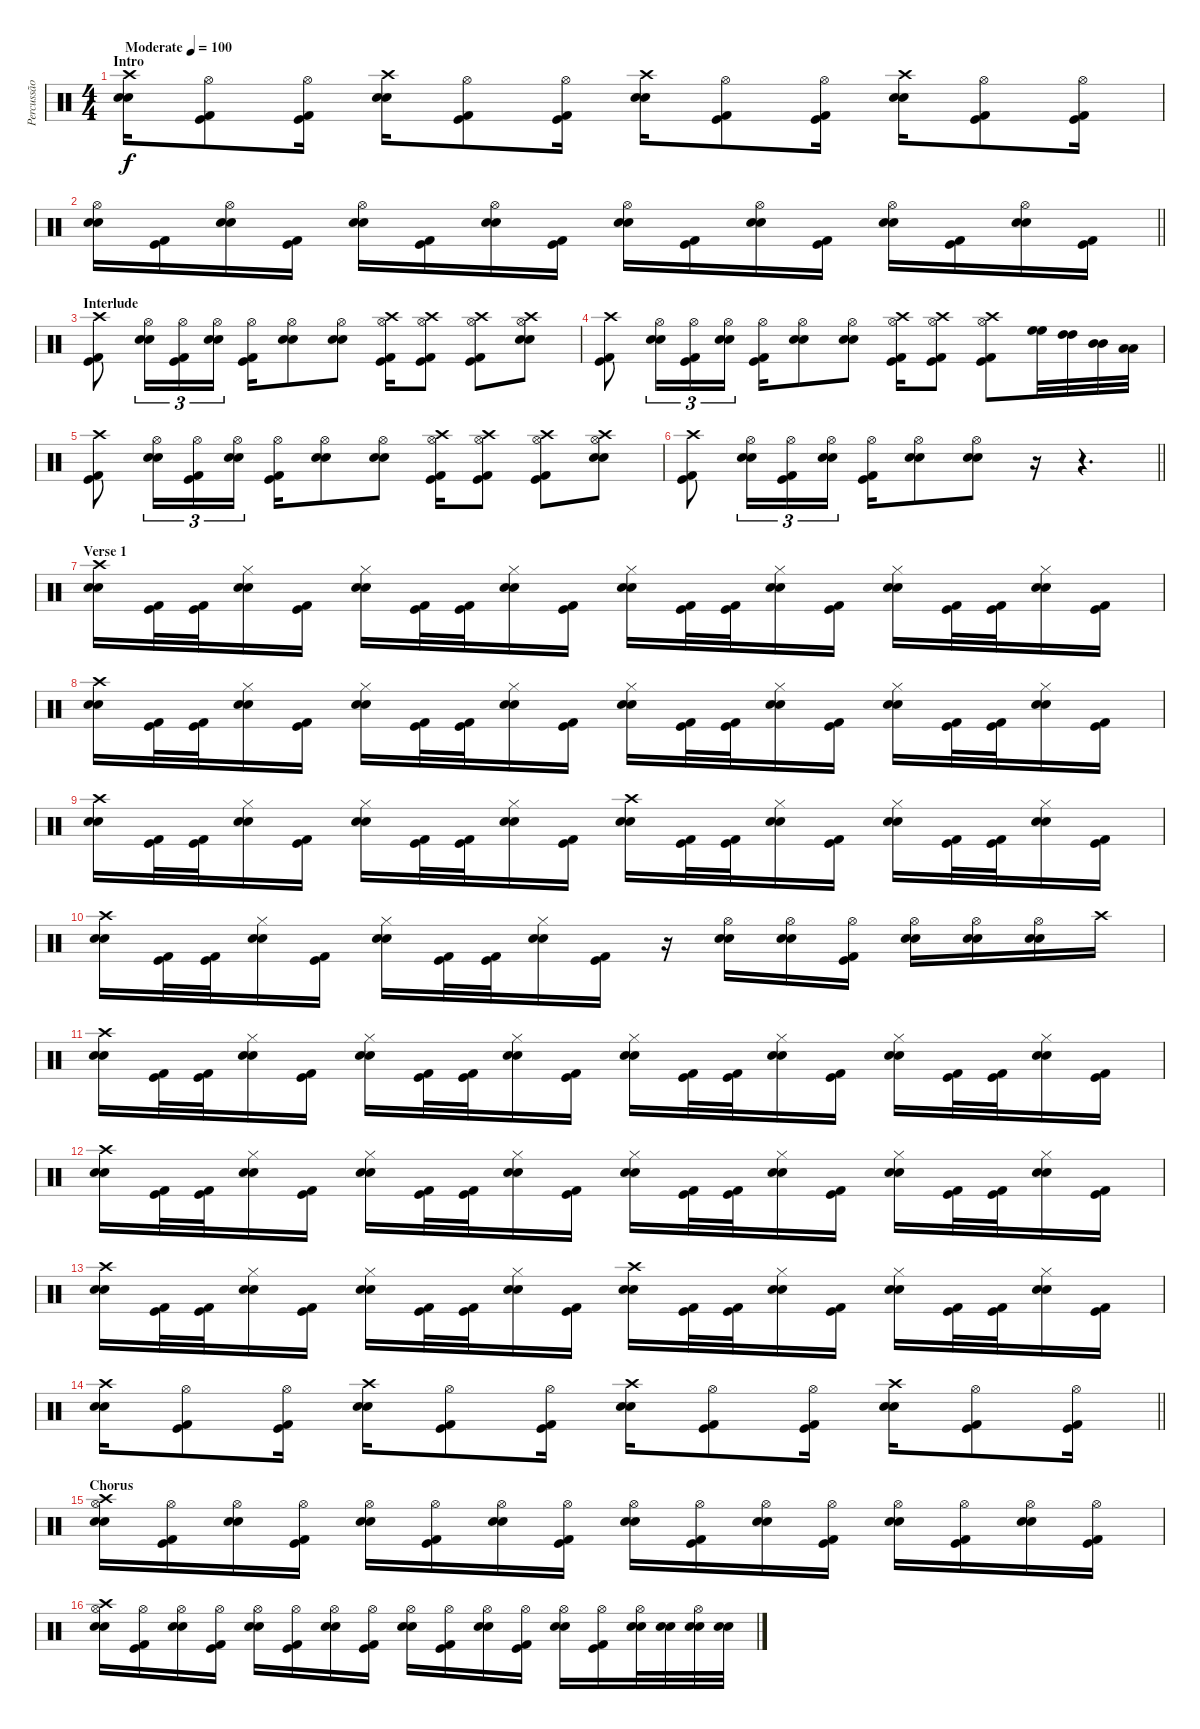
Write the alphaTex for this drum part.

\track ("Percussão" "Percussão") {instrument percussion}
\staff {score}
\articulation defaults
\ts (4 4)
\section ("" "Intro")
\tempo (100 "Moderate")
\clef neutral
\ks c
("Crash high (hit)" "Electric Snare (hit)" "Snare (hit) 2").16{dy f} ("Hi-Hat (open)" "Kick (hit) 2" "Kick (hit)").8 ("Hi-Hat (open)" "Kick (hit) 2" "Kick (hit)").16 ("Crash high (hit)" "Electric Snare (hit)" "Snare (hit) 2").16 ("Hi-Hat (open)" "Kick (hit) 2" "Kick (hit)").8 ("Hi-Hat (open)" "Kick (hit) 2" "Kick (hit)").16 ("Crash high (hit)" "Electric Snare (hit)" "Snare (hit) 2").16 ("Hi-Hat (open)" "Kick (hit) 2" "Kick (hit)").8 ("Hi-Hat (open)" "Kick (hit) 2" "Kick (hit)").16 ("Crash high (hit)" "Electric Snare (hit)" "Snare (hit) 2").16 ("Hi-Hat (open)" "Kick (hit) 2" "Kick (hit)").8 ("Hi-Hat (open)" "Kick (hit) 2" "Kick (hit)").16 |
\barLineRight lightlight
("Hi-Hat (open)" "Electric Snare (hit)" "Snare (hit) 2").16 ("Kick (hit) 2" "Kick (hit)").16 ("Hi-Hat (open)" "Electric Snare (hit)" "Snare (hit) 2").16 ("Kick (hit) 2" "Kick (hit)").16 ("Hi-Hat (open)" "Electric Snare (hit)" "Snare (hit) 2").16 ("Kick (hit) 2" "Kick (hit)").16 ("Hi-Hat (open)" "Electric Snare (hit)" "Snare (hit) 2").16 ("Kick (hit) 2" "Kick (hit)").16 ("Hi-Hat (open)" "Electric Snare (hit)" "Snare (hit) 2").16 ("Kick (hit) 2" "Kick (hit)").16 ("Hi-Hat (open)" "Electric Snare (hit)" "Snare (hit) 2").16 ("Kick (hit) 2" "Kick (hit)").16 ("Hi-Hat (open)" "Electric Snare (hit)" "Snare (hit) 2").16 ("Kick (hit) 2" "Kick (hit)").16 ("Hi-Hat (open)" "Electric Snare (hit)" "Snare (hit) 2").16 ("Kick (hit) 2" "Kick (hit)").16 |
\section ("" "Interlude")
("Crash high (hit)" "Kick (hit) 2" "Kick (hit)").8 ("Hi-Hat (open)" "Electric Snare (hit)" "Snare (hit) 2").16{tu (3 2)} ("Hi-Hat (open)" "Kick (hit) 2" "Kick (hit)").16{tu (3 2)} ("Hi-Hat (open)" "Electric Snare (hit)" "Snare (hit) 2").16{tu (3 2)} ("Hi-Hat (open)" "Kick (hit) 2" "Kick (hit)").16 ("Hi-Hat (open)" "Electric Snare (hit)" "Snare (hit) 2").8 ("Hi-Hat (open)" "Electric Snare (hit)" "Snare (hit) 2").8 ("Crash high (hit)" "Hi-Hat (open)" "Kick (hit) 2" "Kick (hit)").16 ("Crash high (hit)" "Hi-Hat (open)" "Kick (hit) 2" "Kick (hit)").8 ("Crash high (hit)" "Hi-Hat (open)" "Kick (hit) 2" "Kick (hit)").8 ("Crash high (hit)" "Hi-Hat (open)" "Electric Snare (hit)" "Snare (hit) 2").8 |
("Crash high (hit)" "Kick (hit) 2" "Kick (hit)").8 ("Hi-Hat (open)" "Electric Snare (hit)" "Snare (hit) 2").16{tu (3 2)} ("Hi-Hat (open)" "Kick (hit) 2" "Kick (hit)").16{tu (3 2)} ("Hi-Hat (open)" "Electric Snare (hit)" "Snare (hit) 2").16{tu (3 2)} ("Hi-Hat (open)" "Kick (hit) 2" "Kick (hit)").16 ("Hi-Hat (open)" "Electric Snare (hit)" "Snare (hit) 2").8 ("Hi-Hat (open)" "Electric Snare (hit)" "Snare (hit) 2").8 ("Crash high (hit)" "Hi-Hat (open)" "Kick (hit) 2" "Kick (hit)").16 ("Crash high (hit)" "Hi-Hat (open)" "Kick (hit) 2" "Kick (hit)").8 ("Crash high (hit)" "Hi-Hat (open)" "Kick (hit) 2" "Kick (hit)").8 ("High Floor Tom (hit)" "High Floor Tom (hit)").32 ("High Tom (hit)" "High Tom (hit)").32 ("Mid Tom (hit)" "Mid Tom (hit)").32 ("Low Tom (hit)" "Low Tom (hit)").32 |
("Crash high (hit)" "Kick (hit) 2" "Kick (hit)").8 ("Hi-Hat (open)" "Electric Snare (hit)" "Snare (hit) 2").16{tu (3 2)} ("Hi-Hat (open)" "Kick (hit) 2" "Kick (hit)").16{tu (3 2)} ("Hi-Hat (open)" "Electric Snare (hit)" "Snare (hit) 2").16{tu (3 2)} ("Hi-Hat (open)" "Kick (hit) 2" "Kick (hit)").16 ("Hi-Hat (open)" "Electric Snare (hit)" "Snare (hit) 2").8 ("Hi-Hat (open)" "Electric Snare (hit)" "Snare (hit) 2").8 ("Crash high (hit)" "Hi-Hat (open)" "Kick (hit) 2" "Kick (hit)").16 ("Crash high (hit)" "Hi-Hat (open)" "Kick (hit) 2" "Kick (hit)").8 ("Crash high (hit)" "Hi-Hat (open)" "Kick (hit) 2" "Kick (hit)").8 ("Crash high (hit)" "Hi-Hat (open)" "Electric Snare (hit)" "Snare (hit) 2").8 |
\barLineRight lightlight
("Crash high (hit)" "Kick (hit) 2" "Kick (hit)").8 ("Hi-Hat (open)" "Electric Snare (hit)" "Snare (hit) 2").16{tu (3 2)} ("Hi-Hat (open)" "Kick (hit) 2" "Kick (hit)").16{tu (3 2)} ("Hi-Hat (open)" "Electric Snare (hit)" "Snare (hit) 2").16{tu (3 2)} ("Hi-Hat (open)" "Kick (hit) 2" "Kick (hit)").16 ("Hi-Hat (open)" "Electric Snare (hit)" "Snare (hit) 2").8 ("Hi-Hat (open)" "Electric Snare (hit)" "Snare (hit) 2").8 r.16 r.4{d} |
\section ("" "Verse 1")
("Crash high (hit)" "Electric Snare (hit)" "Snare (hit) 2").16 ("Kick (hit) 2" "Kick (hit)").32 ("Kick (hit) 2" "Kick (hit)").32 ("Hi-Hat (closed)" "Electric Snare (hit)" "Snare (hit) 2").16 ("Kick (hit) 2" "Kick (hit)").16 ("Hi-Hat (closed)" "Electric Snare (hit)" "Snare (hit) 2").16 ("Kick (hit) 2" "Kick (hit)").32 ("Kick (hit) 2" "Kick (hit)").32 ("Hi-Hat (closed)" "Electric Snare (hit)" "Snare (hit) 2").16 ("Kick (hit) 2" "Kick (hit)").16 ("Hi-Hat (closed)" "Electric Snare (hit)" "Snare (hit) 2").16 ("Kick (hit) 2" "Kick (hit)").32 ("Kick (hit) 2" "Kick (hit)").32 ("Hi-Hat (closed)" "Electric Snare (hit)" "Snare (hit) 2").16 ("Kick (hit) 2" "Kick (hit)").16 ("Hi-Hat (closed)" "Electric Snare (hit)" "Snare (hit) 2").16 ("Kick (hit) 2" "Kick (hit)").32 ("Kick (hit) 2" "Kick (hit)").32 ("Hi-Hat (closed)" "Electric Snare (hit)" "Snare (hit) 2").16 ("Kick (hit) 2" "Kick (hit)").16 |
("Crash high (hit)" "Electric Snare (hit)" "Snare (hit) 2").16 ("Kick (hit) 2" "Kick (hit)").32 ("Kick (hit) 2" "Kick (hit)").32 ("Hi-Hat (closed)" "Electric Snare (hit)" "Snare (hit) 2").16 ("Kick (hit) 2" "Kick (hit)").16 ("Hi-Hat (closed)" "Electric Snare (hit)" "Snare (hit) 2").16 ("Kick (hit) 2" "Kick (hit)").32 ("Kick (hit) 2" "Kick (hit)").32 ("Hi-Hat (closed)" "Electric Snare (hit)" "Snare (hit) 2").16 ("Kick (hit) 2" "Kick (hit)").16 ("Hi-Hat (closed)" "Electric Snare (hit)" "Snare (hit) 2").16 ("Kick (hit) 2" "Kick (hit)").32 ("Kick (hit) 2" "Kick (hit)").32 ("Hi-Hat (closed)" "Electric Snare (hit)" "Snare (hit) 2").16 ("Kick (hit) 2" "Kick (hit)").16 ("Hi-Hat (closed)" "Electric Snare (hit)" "Snare (hit) 2").16 ("Kick (hit) 2" "Kick (hit)").32 ("Kick (hit) 2" "Kick (hit)").32 ("Hi-Hat (closed)" "Electric Snare (hit)" "Snare (hit) 2").16 ("Kick (hit) 2" "Kick (hit)").16 |
("Crash high (hit)" "Electric Snare (hit)" "Snare (hit) 2").16 ("Kick (hit) 2" "Kick (hit)").32 ("Kick (hit) 2" "Kick (hit)").32 ("Hi-Hat (closed)" "Electric Snare (hit)" "Snare (hit) 2").16 ("Kick (hit) 2" "Kick (hit)").16 ("Hi-Hat (closed)" "Electric Snare (hit)" "Snare (hit) 2").16 ("Kick (hit) 2" "Kick (hit)").32 ("Kick (hit) 2" "Kick (hit)").32 ("Hi-Hat (closed)" "Electric Snare (hit)" "Snare (hit) 2").16 ("Kick (hit) 2" "Kick (hit)").16 ("Crash high (hit)" "Electric Snare (hit)" "Snare (hit) 2").16 ("Kick (hit) 2" "Kick (hit)").32 ("Kick (hit) 2" "Kick (hit)").32 ("Hi-Hat (closed)" "Electric Snare (hit)" "Snare (hit) 2").16 ("Kick (hit) 2" "Kick (hit)").16 ("Hi-Hat (closed)" "Electric Snare (hit)" "Snare (hit) 2").16 ("Kick (hit) 2" "Kick (hit)").32 ("Kick (hit) 2" "Kick (hit)").32 ("Hi-Hat (closed)" "Electric Snare (hit)" "Snare (hit) 2").16 ("Kick (hit) 2" "Kick (hit)").16 |
("Crash high (hit)" "Electric Snare (hit)" "Snare (hit) 2").16 ("Kick (hit) 2" "Kick (hit)").32 ("Kick (hit) 2" "Kick (hit)").32 ("Hi-Hat (closed)" "Electric Snare (hit)" "Snare (hit) 2").16 ("Kick (hit) 2" "Kick (hit)").16 ("Hi-Hat (closed)" "Electric Snare (hit)" "Snare (hit) 2").16 ("Kick (hit) 2" "Kick (hit)").32 ("Kick (hit) 2" "Kick (hit)").32 ("Hi-Hat (closed)" "Electric Snare (hit)" "Snare (hit) 2").16 ("Kick (hit) 2" "Kick (hit)").16 r.16 ("Hi-Hat (open)" "Electric Snare (hit)" "Snare (hit) 2").16 ("Hi-Hat (open)" "Electric Snare (hit)" "Snare (hit) 2").16 ("Hi-Hat (open)" "Kick (hit) 2" "Kick (hit)").16 ("Hi-Hat (open)" "Electric Snare (hit)" "Snare (hit) 2").16 ("Hi-Hat (open)" "Electric Snare (hit)" "Snare (hit) 2").16 ("Hi-Hat (open)" "Electric Snare (hit)" "Snare (hit) 2").16 "Crash high (hit)".16 |
("Crash high (hit)" "Electric Snare (hit)" "Snare (hit) 2").16 ("Kick (hit) 2" "Kick (hit)").32 ("Kick (hit) 2" "Kick (hit)").32 ("Hi-Hat (closed)" "Electric Snare (hit)" "Snare (hit) 2").16 ("Kick (hit) 2" "Kick (hit)").16 ("Hi-Hat (closed)" "Electric Snare (hit)" "Snare (hit) 2").16 ("Kick (hit) 2" "Kick (hit)").32 ("Kick (hit) 2" "Kick (hit)").32 ("Hi-Hat (closed)" "Electric Snare (hit)" "Snare (hit) 2").16 ("Kick (hit) 2" "Kick (hit)").16 ("Hi-Hat (closed)" "Electric Snare (hit)" "Snare (hit) 2").16 ("Kick (hit) 2" "Kick (hit)").32 ("Kick (hit) 2" "Kick (hit)").32 ("Hi-Hat (closed)" "Electric Snare (hit)" "Snare (hit) 2").16 ("Kick (hit) 2" "Kick (hit)").16 ("Hi-Hat (closed)" "Electric Snare (hit)" "Snare (hit) 2").16 ("Kick (hit) 2" "Kick (hit)").32 ("Kick (hit) 2" "Kick (hit)").32 ("Hi-Hat (closed)" "Electric Snare (hit)" "Snare (hit) 2").16 ("Kick (hit) 2" "Kick (hit)").16 |
("Crash high (hit)" "Electric Snare (hit)" "Snare (hit) 2").16 ("Kick (hit) 2" "Kick (hit)").32 ("Kick (hit) 2" "Kick (hit)").32 ("Hi-Hat (closed)" "Electric Snare (hit)" "Snare (hit) 2").16 ("Kick (hit) 2" "Kick (hit)").16 ("Hi-Hat (closed)" "Electric Snare (hit)" "Snare (hit) 2").16 ("Kick (hit) 2" "Kick (hit)").32 ("Kick (hit) 2" "Kick (hit)").32 ("Hi-Hat (closed)" "Electric Snare (hit)" "Snare (hit) 2").16 ("Kick (hit) 2" "Kick (hit)").16 ("Hi-Hat (closed)" "Electric Snare (hit)" "Snare (hit) 2").16 ("Kick (hit) 2" "Kick (hit)").32 ("Kick (hit) 2" "Kick (hit)").32 ("Hi-Hat (closed)" "Electric Snare (hit)" "Snare (hit) 2").16 ("Kick (hit) 2" "Kick (hit)").16 ("Hi-Hat (closed)" "Electric Snare (hit)" "Snare (hit) 2").16 ("Kick (hit) 2" "Kick (hit)").32 ("Kick (hit) 2" "Kick (hit)").32 ("Hi-Hat (closed)" "Electric Snare (hit)" "Snare (hit) 2").16 ("Kick (hit) 2" "Kick (hit)").16 |
("Crash high (hit)" "Electric Snare (hit)" "Snare (hit) 2").16 ("Kick (hit) 2" "Kick (hit)").32 ("Kick (hit) 2" "Kick (hit)").32 ("Hi-Hat (closed)" "Electric Snare (hit)" "Snare (hit) 2").16 ("Kick (hit) 2" "Kick (hit)").16 ("Hi-Hat (closed)" "Electric Snare (hit)" "Snare (hit) 2").16 ("Kick (hit) 2" "Kick (hit)").32 ("Kick (hit) 2" "Kick (hit)").32 ("Hi-Hat (closed)" "Electric Snare (hit)" "Snare (hit) 2").16 ("Kick (hit) 2" "Kick (hit)").16 ("Crash high (hit)" "Electric Snare (hit)" "Snare (hit) 2").16 ("Kick (hit) 2" "Kick (hit)").32 ("Kick (hit) 2" "Kick (hit)").32 ("Hi-Hat (closed)" "Electric Snare (hit)" "Snare (hit) 2").16 ("Kick (hit) 2" "Kick (hit)").16 ("Hi-Hat (closed)" "Electric Snare (hit)" "Snare (hit) 2").16 ("Kick (hit) 2" "Kick (hit)").32 ("Kick (hit) 2" "Kick (hit)").32 ("Hi-Hat (closed)" "Electric Snare (hit)" "Snare (hit) 2").16 ("Kick (hit) 2" "Kick (hit)").16 |
\barLineRight lightlight
("Crash high (hit)" "Electric Snare (hit)" "Snare (hit) 2").16 ("Hi-Hat (open)" "Kick (hit) 2" "Kick (hit)").8 ("Hi-Hat (open)" "Kick (hit) 2" "Kick (hit)").16 ("Crash high (hit)" "Electric Snare (hit)" "Snare (hit) 2").16 ("Hi-Hat (open)" "Kick (hit) 2" "Kick (hit)").8 ("Hi-Hat (open)" "Kick (hit) 2" "Kick (hit)").16 ("Crash high (hit)" "Electric Snare (hit)" "Snare (hit) 2").16 ("Hi-Hat (open)" "Kick (hit) 2" "Kick (hit)").8 ("Hi-Hat (open)" "Kick (hit) 2" "Kick (hit)").16 ("Crash high (hit)" "Electric Snare (hit)" "Snare (hit) 2").16 ("Hi-Hat (open)" "Kick (hit) 2" "Kick (hit)").8 ("Hi-Hat (open)" "Kick (hit) 2" "Kick (hit)").16 |
\section ("" "Chorus")
("Crash high (hit)" "Hi-Hat (open)" "Electric Snare (hit)" "Snare (hit) 2").16 ("Hi-Hat (open)" "Kick (hit) 2" "Kick (hit)").16 ("Hi-Hat (open)" "Electric Snare (hit)" "Snare (hit) 2").16 ("Hi-Hat (open)" "Kick (hit) 2" "Kick (hit)").16 ("Hi-Hat (open)" "Electric Snare (hit)" "Snare (hit) 2").16 ("Hi-Hat (open)" "Kick (hit) 2" "Kick (hit)").16 ("Hi-Hat (open)" "Electric Snare (hit)" "Snare (hit) 2").16 ("Hi-Hat (open)" "Kick (hit) 2" "Kick (hit)").16 ("Hi-Hat (open)" "Electric Snare (hit)" "Snare (hit) 2").16 ("Hi-Hat (open)" "Kick (hit) 2" "Kick (hit)").16 ("Hi-Hat (open)" "Electric Snare (hit)" "Snare (hit) 2").16 ("Hi-Hat (open)" "Kick (hit) 2" "Kick (hit)").16 ("Hi-Hat (open)" "Electric Snare (hit)" "Snare (hit) 2").16 ("Hi-Hat (open)" "Kick (hit) 2" "Kick (hit)").16 ("Hi-Hat (open)" "Electric Snare (hit)" "Snare (hit) 2").16 ("Hi-Hat (open)" "Kick (hit) 2" "Kick (hit)").16 |
("Crash high (hit)" "Hi-Hat (open)" "Electric Snare (hit)" "Snare (hit) 2").16 ("Hi-Hat (open)" "Kick (hit) 2" "Kick (hit)").16 ("Hi-Hat (open)" "Electric Snare (hit)" "Snare (hit) 2").16 ("Hi-Hat (open)" "Kick (hit) 2" "Kick (hit)").16 ("Hi-Hat (open)" "Electric Snare (hit)" "Snare (hit) 2").16 ("Hi-Hat (open)" "Kick (hit) 2" "Kick (hit)").16 ("Hi-Hat (open)" "Electric Snare (hit)" "Snare (hit) 2").16 ("Hi-Hat (open)" "Kick (hit) 2" "Kick (hit)").16 ("Hi-Hat (open)" "Electric Snare (hit)" "Snare (hit) 2").16 ("Hi-Hat (open)" "Kick (hit) 2" "Kick (hit)").16 ("Hi-Hat (open)" "Electric Snare (hit)" "Snare (hit) 2").16 ("Hi-Hat (open)" "Kick (hit) 2" "Kick (hit)").16 ("Hi-Hat (open)" "Electric Snare (hit)" "Snare (hit) 2").16 ("Hi-Hat (open)" "Kick (hit) 2" "Kick (hit)").16 ("Hi-Hat (open)" "Electric Snare (hit)" "Snare (hit) 2").32 ("Electric Snare (hit)" "Snare (hit) 2").32 ("Hi-Hat (open)" "Electric Snare (hit)" "Snare (hit) 2").32 ("Electric Snare (hit)" "Snare (hit) 2").32
